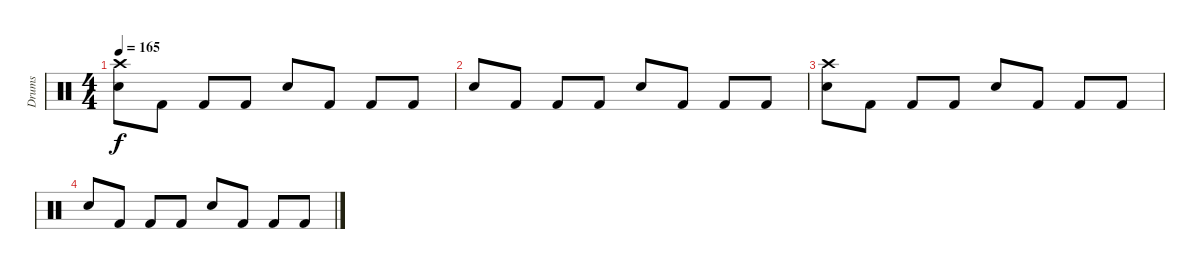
\track ("Drums" "Drums") {instrument percussion}
\staff {score}
\articulation defaults
\ts (4 4)
\tempo 165
\clef neutral
\ks c
("Snare (hit) 2" "Crash high (hit)").8{dy f} "Kick (hit) 2".8 "Kick (hit) 2".8 "Kick (hit) 2".8 "Snare (hit) 2".8 "Kick (hit) 2".8 "Kick (hit) 2".8 "Kick (hit) 2".8 |
"Snare (hit) 2".8 "Kick (hit) 2".8 "Kick (hit) 2".8 "Kick (hit) 2".8 "Snare (hit) 2".8 "Kick (hit) 2".8 "Kick (hit) 2".8 "Kick (hit) 2".8 |
("Snare (hit) 2" "Crash high (hit)").8 "Kick (hit) 2".8 "Kick (hit) 2".8 "Kick (hit) 2".8 "Snare (hit) 2".8 "Kick (hit) 2".8 "Kick (hit) 2".8 "Kick (hit) 2".8 |
"Snare (hit) 2".8 "Kick (hit) 2".8 "Kick (hit) 2".8 "Kick (hit) 2".8 "Snare (hit) 2".8 "Kick (hit) 2".8 "Kick (hit) 2".8 "Kick (hit) 2".8
